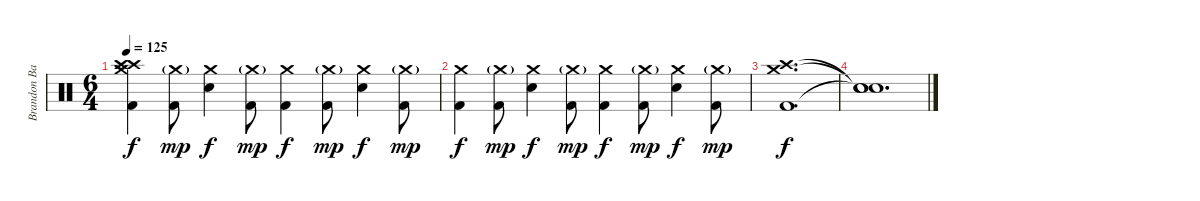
\track ("Brandon Barnes" "Brandon Ba") {instrument percussion}
\staff {score}
\articulation defaults
\ts (6 4)
\tempo 125
\clef neutral
\ks c
("Crash high (hit)" "Crash high (hit)" "Crash medium (hit)" "Kick (hit) 2").4{dy f} ("Crash medium (hit)"{g} "Kick (hit) 2").8{dy mp} ("Crash medium (hit)" "Electric Snare (hit)").4{dy f} ("Crash medium (hit)"{g} "Kick (hit) 2").8{dy mp} ("Crash medium (hit)" "Kick (hit) 2").4{dy f} ("Crash medium (hit)"{g} "Kick (hit) 2").8{dy mp} ("Crash medium (hit)" "Electric Snare (hit)").4{dy f} ("Crash medium (hit)"{g} "Kick (hit) 2").8{dy mp} |
("Crash medium (hit)" "Kick (hit) 2").4{dy f} ("Crash medium (hit)"{g} "Kick (hit) 2").8{dy mp} ("Crash medium (hit)" "Electric Snare (hit)").4{dy f} ("Crash medium (hit)"{g} "Kick (hit) 2").8{dy mp} ("Crash medium (hit)" "Kick (hit) 2").4{dy f} ("Crash medium (hit)"{g} "Kick (hit) 2").8{dy mp} ("Crash medium (hit)" "Electric Snare (hit)").4{dy f} ("Crash medium (hit)"{g} "Kick (hit) 2").8{dy mp} |
("Crash medium (hit)" "Crash high (hit)" "Kick (hit) 2").1{d dy f volume 0} |
("Snare (hit)"{t} "Snare (hit)"{t} "Snare (hit)"{t}).1{d}
